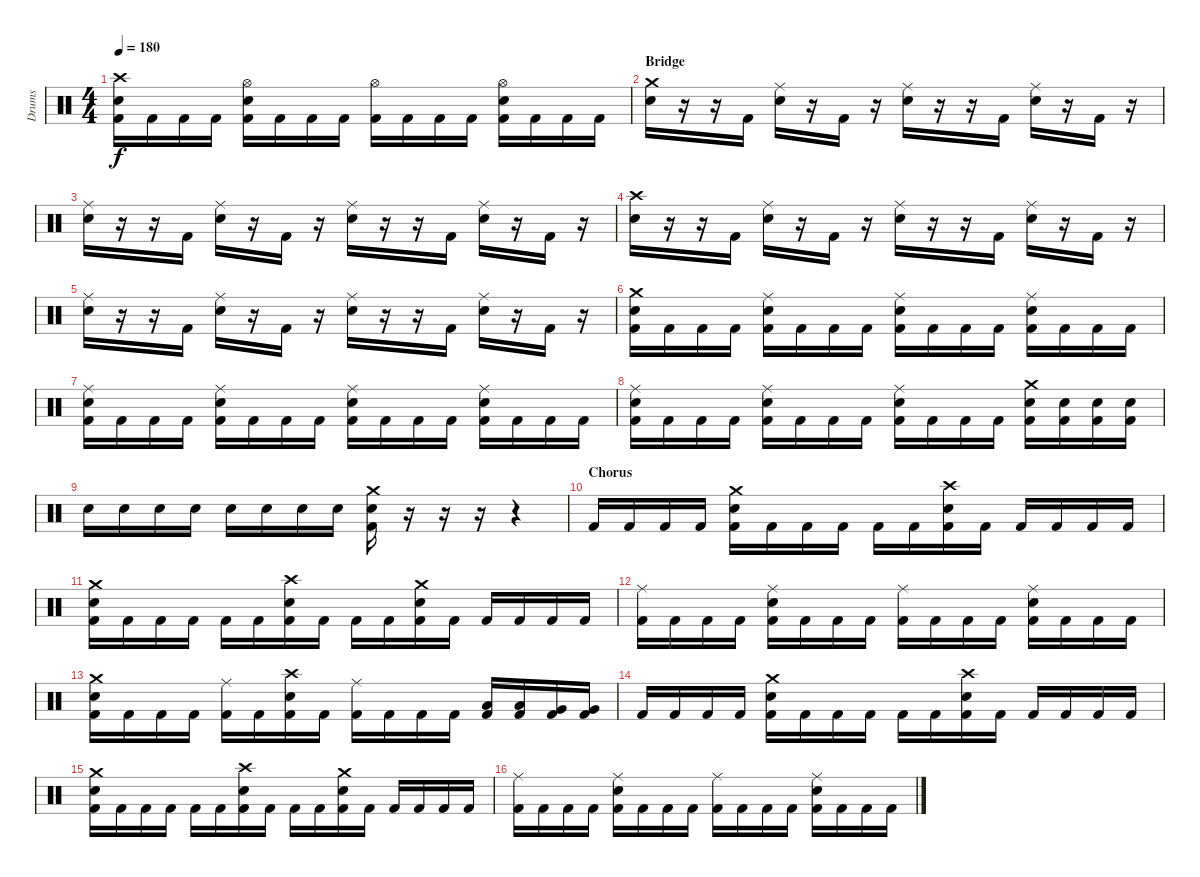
\track ("Drums" "Drums") {instrument percussion}
\staff {score}
\articulation defaults
\ts (4 4)
\tempo 180
\clef neutral
\ks c
("Crash high (hit)" "Snare (hit) 2" "Kick (hit) 2").16{dy f} "Kick (hit) 2".16 "Kick (hit) 2".16 "Kick (hit) 2".16 ("Hi-Hat (open)" "Snare (hit) 2" "Kick (hit) 2").16 "Kick (hit) 2".16 "Kick (hit) 2".16 "Kick (hit) 2".16 ("Hi-Hat (open)" "Kick (hit) 2").16 "Kick (hit) 2".16 "Kick (hit) 2".16 "Kick (hit) 2".16 ("Hi-Hat (open)" "Snare (hit) 2" "Kick (hit) 2").16 "Kick (hit) 2".16 "Kick (hit) 2".16 "Kick (hit) 2".16 |
\section ("" "Bridge")
("Crash medium (hit)" "Snare (hit) 2").16 r.16 r.16 "Kick (hit) 2".16 ("Ride (middle)" "Snare (hit) 2").16 r.16 "Kick (hit) 2".16 r.16 ("Ride (middle)" "Snare (hit) 2").16 r.16 r.16 "Kick (hit) 2".16 ("Ride (middle)" "Snare (hit) 2").16 r.16 "Kick (hit) 2".16 r.16 |
("Ride (middle)" "Snare (hit) 2").16 r.16 r.16 "Kick (hit) 2".16 ("Ride (middle)" "Snare (hit) 2").16 r.16 "Kick (hit) 2".16 r.16 ("Ride (middle)" "Snare (hit) 2").16 r.16 r.16 "Kick (hit) 2".16 ("Ride (middle)" "Snare (hit) 2").16 r.16 "Kick (hit) 2".16 r.16 |
("Crash high (hit)" "Snare (hit) 2").16 r.16 r.16 "Kick (hit) 2".16 ("Ride (middle)" "Snare (hit) 2").16 r.16 "Kick (hit) 2".16 r.16 ("Ride (middle)" "Snare (hit) 2").16 r.16 r.16 "Kick (hit) 2".16 ("Ride (middle)" "Snare (hit) 2").16 r.16 "Kick (hit) 2".16 r.16 |
("Ride (middle)" "Snare (hit) 2").16 r.16 r.16 "Kick (hit) 2".16 ("Ride (middle)" "Snare (hit) 2").16 r.16 "Kick (hit) 2".16 r.16 ("Ride (middle)" "Snare (hit) 2").16 r.16 r.16 "Kick (hit) 2".16 ("Ride (middle)" "Snare (hit) 2").16 r.16 "Kick (hit) 2".16 r.16 |
("Crash medium (hit)" "Snare (hit) 2" "Kick (hit) 2").16 "Kick (hit) 2".16 "Kick (hit) 2".16 "Kick (hit) 2".16 ("Ride (middle)" "Snare (hit) 2" "Kick (hit) 2").16 "Kick (hit) 2".16 "Kick (hit) 2".16 "Kick (hit) 2".16 ("Ride (middle)" "Snare (hit) 2" "Kick (hit) 2").16 "Kick (hit) 2".16 "Kick (hit) 2".16 "Kick (hit) 2".16 ("Ride (middle)" "Snare (hit) 2" "Kick (hit) 2").16 "Kick (hit) 2".16 "Kick (hit) 2".16 "Kick (hit) 2".16 |
("Ride (middle)" "Snare (hit) 2" "Kick (hit) 2").16 "Kick (hit) 2".16 "Kick (hit) 2".16 "Kick (hit) 2".16 ("Ride (middle)" "Snare (hit) 2" "Kick (hit) 2").16 "Kick (hit) 2".16 "Kick (hit) 2".16 "Kick (hit) 2".16 ("Ride (middle)" "Snare (hit) 2" "Kick (hit) 2").16 "Kick (hit) 2".16 "Kick (hit) 2".16 "Kick (hit) 2".16 ("Ride (middle)" "Snare (hit) 2" "Kick (hit) 2").16 "Kick (hit) 2".16 "Kick (hit) 2".16 "Kick (hit) 2".16 |
("Ride (middle)" "Snare (hit) 2" "Kick (hit) 2").16 "Kick (hit) 2".16 "Kick (hit) 2".16 "Kick (hit) 2".16 ("Ride (middle)" "Snare (hit) 2" "Kick (hit) 2").16 "Kick (hit) 2".16 "Kick (hit) 2".16 "Kick (hit) 2".16 ("Ride (middle)" "Snare (hit) 2" "Kick (hit) 2").16 "Kick (hit) 2".16 "Kick (hit) 2".16 "Kick (hit) 2".16 ("Crash medium (hit)" "Snare (hit) 2" "Kick (hit) 2").16 ("Snare (hit) 2" "Kick (hit) 2").16 ("Snare (hit) 2" "Kick (hit) 2").16 ("Snare (hit) 2" "Kick (hit) 2").16 |
"Snare (hit) 2".16 "Snare (hit) 2".16 "Snare (hit) 2".16 "Snare (hit) 2".16 "Snare (hit) 2".16 "Snare (hit) 2".16 "Snare (hit) 2".16 "Snare (hit) 2".16 ("Crash medium (hit)" "Snare (hit) 2" "Kick (hit) 2").16 r.16 r.16 r.16 r.4 |
\section ("" "Chorus")
"Kick (hit) 2".16 "Kick (hit) 2".16 "Kick (hit) 2".16 "Kick (hit) 2".16 ("Crash medium (hit)" "Snare (hit) 2" "Kick (hit) 2").16 "Kick (hit) 2".16 "Kick (hit) 2".16 "Kick (hit) 2".16 "Kick (hit) 2".16 "Kick (hit) 2".16 ("Crash high (hit)" "Snare (hit) 2" "Kick (hit) 2").16 "Kick (hit) 2".16 "Kick (hit) 2".16 "Kick (hit) 2".16 "Kick (hit) 2".16 "Kick (hit) 2".16 |
("Crash medium (hit)" "Snare (hit) 2" "Kick (hit) 2").16 "Kick (hit) 2".16 "Kick (hit) 2".16 "Kick (hit) 2".16 "Kick (hit) 2".16 "Kick (hit) 2".16 ("Crash high (hit)" "Snare (hit) 2" "Kick (hit) 2").16 "Kick (hit) 2".16 "Kick (hit) 2".16 "Kick (hit) 2".16 ("Crash medium (hit)" "Snare (hit) 2" "Kick (hit) 2").16 "Kick (hit) 2".16 "Kick (hit) 2".16 "Kick (hit) 2".16 "Kick (hit) 2".16 "Kick (hit) 2".16 |
("Ride (middle)" "Kick (hit) 2").16 "Kick (hit) 2".16 "Kick (hit) 2".16 "Kick (hit) 2".16 ("Ride (middle)" "Snare (hit) 2" "Kick (hit) 2").16 "Kick (hit) 2".16 "Kick (hit) 2".16 "Kick (hit) 2".16 ("Ride (middle)" "Kick (hit) 2").16 "Kick (hit) 2".16 "Kick (hit) 2".16 "Kick (hit) 2".16 ("Ride (middle)" "Snare (hit) 2" "Kick (hit) 2").16 "Kick (hit) 2".16 "Kick (hit) 2".16 "Kick (hit) 2".16 |
("Crash medium (hit)" "Snare (hit) 2" "Kick (hit) 2").16 "Kick (hit) 2".16 "Kick (hit) 2".16 "Kick (hit) 2".16 ("Ride (middle)" "Kick (hit) 2").16 "Kick (hit) 2".16 ("Crash high (hit)" "Snare (hit) 2" "Kick (hit) 2").16 "Kick (hit) 2".16 ("Ride (middle)" "Kick (hit) 2").16 "Kick (hit) 2".16 "Kick (hit) 2".16 "Kick (hit) 2".16 ("Low Tom (hit)" "Kick (hit) 2").16 ("Low Tom (hit)" "Kick (hit) 2").16 ("Very Low Tom (hit)" "Kick (hit) 2").16 ("Very Low Tom (hit)" "Kick (hit) 2").16 |
"Kick (hit) 2".16 "Kick (hit) 2".16 "Kick (hit) 2".16 "Kick (hit) 2".16 ("Crash medium (hit)" "Snare (hit) 2" "Kick (hit) 2").16 "Kick (hit) 2".16 "Kick (hit) 2".16 "Kick (hit) 2".16 "Kick (hit) 2".16 "Kick (hit) 2".16 ("Crash high (hit)" "Snare (hit) 2" "Kick (hit) 2").16 "Kick (hit) 2".16 "Kick (hit) 2".16 "Kick (hit) 2".16 "Kick (hit) 2".16 "Kick (hit) 2".16 |
("Crash medium (hit)" "Snare (hit) 2" "Kick (hit) 2").16 "Kick (hit) 2".16 "Kick (hit) 2".16 "Kick (hit) 2".16 "Kick (hit) 2".16 "Kick (hit) 2".16 ("Crash high (hit)" "Snare (hit) 2" "Kick (hit) 2").16 "Kick (hit) 2".16 "Kick (hit) 2".16 "Kick (hit) 2".16 ("Crash medium (hit)" "Snare (hit) 2" "Kick (hit) 2").16 "Kick (hit) 2".16 "Kick (hit) 2".16 "Kick (hit) 2".16 "Kick (hit) 2".16 "Kick (hit) 2".16 |
("Ride (middle)" "Kick (hit) 2").16 "Kick (hit) 2".16 "Kick (hit) 2".16 "Kick (hit) 2".16 ("Ride (middle)" "Snare (hit) 2" "Kick (hit) 2").16 "Kick (hit) 2".16 "Kick (hit) 2".16 "Kick (hit) 2".16 ("Ride (middle)" "Kick (hit) 2").16 "Kick (hit) 2".16 "Kick (hit) 2".16 "Kick (hit) 2".16 ("Ride (middle)" "Snare (hit) 2" "Kick (hit) 2").16 "Kick (hit) 2".16 "Kick (hit) 2".16 "Kick (hit) 2".16
